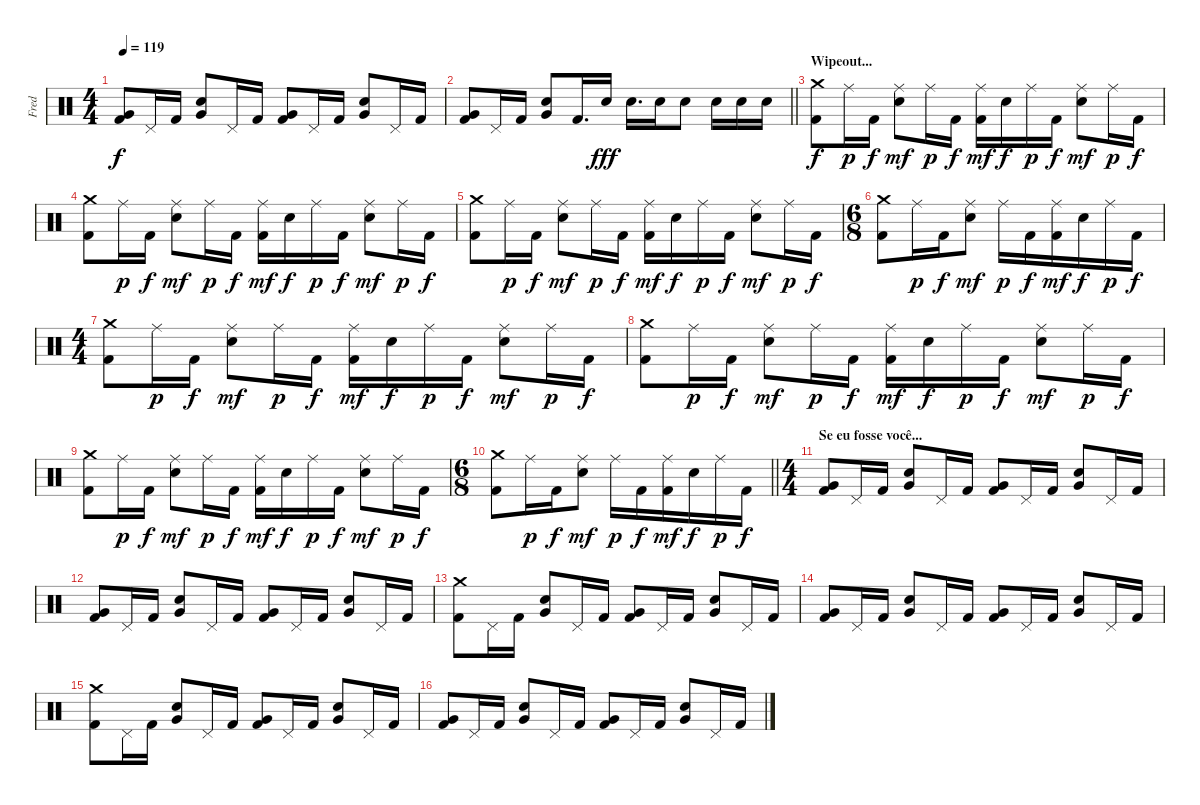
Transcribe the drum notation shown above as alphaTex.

\track ("Fred" "Fred") {instrument percussion}
\staff {score}
\articulation defaults
\ts (4 4)
\tempo 119
\clef neutral
\ks c
("Very Low Tom (hit)" "Kick (hit) 2").8{dy f} "Pedal Hi-Hat (hit)".16 "Kick (hit) 2".16 ("Very Low Tom (hit)" "Electric Snare (hit)").8 "Pedal Hi-Hat (hit)".16 "Kick (hit) 2".16 ("Very Low Tom (hit)" "Kick (hit) 2").8 "Pedal Hi-Hat (hit)".16 "Kick (hit) 2".16 ("Very Low Tom (hit)" "Electric Snare (hit)").8 "Pedal Hi-Hat (hit)".16 "Kick (hit) 2".16 |
\barLineRight lightlight
("Very Low Tom (hit)" "Kick (hit) 2").8 "Pedal Hi-Hat (hit)".16 "Kick (hit) 2".16 ("Very Low Tom (hit)" "Electric Snare (hit)").8 "Kick (hit) 2".16{d} "Electric Snare (hit)".16{dy fff} "Electric Snare (hit)".16{d} "Electric Snare (hit)".16 "Electric Snare (hit)".8 "Electric Snare (hit)".16 "Electric Snare (hit)".16 "Electric Snare (hit)".16 |
\section ("" "Wipeout...")
("Crash medium (hit)" "Kick (hit) 2").8{dy f} "Ride (middle)".16{dy p} "Kick (hit) 2".16{dy f} ("Ride (middle)" "Electric Snare (hit)").8{dy mf} "Ride (middle)".16{dy p} "Kick (hit) 2".16{dy f} ("Ride (middle)" "Kick (hit) 2").16{dy mf} "Electric Snare (hit)".16{dy f} "Ride (middle)".16{dy p} "Kick (hit) 2".16{dy f} ("Ride (middle)" "Electric Snare (hit)").8{dy mf} "Ride (middle)".16{dy p} "Kick (hit) 2".16{dy f} |
("Crash medium (hit)" "Kick (hit) 2").8 "Ride (middle)".16{dy p} "Kick (hit) 2".16{dy f} ("Ride (middle)" "Electric Snare (hit)").8{dy mf} "Ride (middle)".16{dy p} "Kick (hit) 2".16{dy f} ("Ride (middle)" "Kick (hit) 2").16{dy mf} "Electric Snare (hit)".16{dy f} "Ride (middle)".16{dy p} "Kick (hit) 2".16{dy f} ("Ride (middle)" "Electric Snare (hit)").8{dy mf} "Ride (middle)".16{dy p} "Kick (hit) 2".16{dy f} |
("Crash medium (hit)" "Kick (hit) 2").8 "Ride (middle)".16{dy p} "Kick (hit) 2".16{dy f} ("Ride (middle)" "Electric Snare (hit)").8{dy mf} "Ride (middle)".16{dy p} "Kick (hit) 2".16{dy f} ("Ride (middle)" "Kick (hit) 2").16{dy mf} "Electric Snare (hit)".16{dy f} "Ride (middle)".16{dy p} "Kick (hit) 2".16{dy f} ("Ride (middle)" "Electric Snare (hit)").8{dy mf} "Ride (middle)".16{dy p} "Kick (hit) 2".16{dy f} |
\ts (6 8)
("Crash medium (hit)" "Kick (hit) 2").8 "Ride (middle)".16{dy p} "Kick (hit) 2".16{dy f} ("Ride (middle)" "Electric Snare (hit)").8{dy mf} "Ride (middle)".16{dy p} "Kick (hit) 2".16{dy f} ("Ride (middle)" "Kick (hit) 2").16{dy mf} "Electric Snare (hit)".16{dy f} "Ride (middle)".16{dy p} "Kick (hit) 2".16{dy f} |
\ts (4 4)
("Crash medium (hit)" "Kick (hit) 2").8 "Ride (middle)".16{dy p} "Kick (hit) 2".16{dy f} ("Ride (middle)" "Electric Snare (hit)").8{dy mf} "Ride (middle)".16{dy p} "Kick (hit) 2".16{dy f} ("Ride (middle)" "Kick (hit) 2").16{dy mf} "Electric Snare (hit)".16{dy f} "Ride (middle)".16{dy p} "Kick (hit) 2".16{dy f} ("Ride (middle)" "Electric Snare (hit)").8{dy mf} "Ride (middle)".16{dy p} "Kick (hit) 2".16{dy f} |
("Crash medium (hit)" "Kick (hit) 2").8 "Ride (middle)".16{dy p} "Kick (hit) 2".16{dy f} ("Ride (middle)" "Electric Snare (hit)").8{dy mf} "Ride (middle)".16{dy p} "Kick (hit) 2".16{dy f} ("Ride (middle)" "Kick (hit) 2").16{dy mf} "Electric Snare (hit)".16{dy f} "Ride (middle)".16{dy p} "Kick (hit) 2".16{dy f} ("Ride (middle)" "Electric Snare (hit)").8{dy mf} "Ride (middle)".16{dy p} "Kick (hit) 2".16{dy f} |
("Crash medium (hit)" "Kick (hit) 2").8 "Ride (middle)".16{dy p} "Kick (hit) 2".16{dy f} ("Ride (middle)" "Electric Snare (hit)").8{dy mf} "Ride (middle)".16{dy p} "Kick (hit) 2".16{dy f} ("Ride (middle)" "Kick (hit) 2").16{dy mf} "Electric Snare (hit)".16{dy f} "Ride (middle)".16{dy p} "Kick (hit) 2".16{dy f} ("Ride (middle)" "Electric Snare (hit)").8{dy mf} "Ride (middle)".16{dy p} "Kick (hit) 2".16{dy f} |
\ts (6 8)
\barLineRight lightlight
("Crash medium (hit)" "Kick (hit) 2").8 "Ride (middle)".16{dy p} "Kick (hit) 2".16{dy f} ("Ride (middle)" "Electric Snare (hit)").8{dy mf} "Ride (middle)".16{dy p} "Kick (hit) 2".16{dy f} ("Ride (middle)" "Kick (hit) 2").16{dy mf} "Electric Snare (hit)".16{dy f} "Ride (middle)".16{dy p} "Kick (hit) 2".16{dy f} |
\ts (4 4)
\section ("" "Se eu fosse você...")
("Very Low Tom (hit)" "Kick (hit) 2").8 "Pedal Hi-Hat (hit)".16 "Kick (hit) 2".16 ("Very Low Tom (hit)" "Electric Snare (hit)").8 "Pedal Hi-Hat (hit)".16 "Kick (hit) 2".16 ("Very Low Tom (hit)" "Kick (hit) 2").8 "Pedal Hi-Hat (hit)".16 "Kick (hit) 2".16 ("Very Low Tom (hit)" "Electric Snare (hit)").8 "Pedal Hi-Hat (hit)".16 "Kick (hit) 2".16 |
("Very Low Tom (hit)" "Kick (hit) 2").8 "Pedal Hi-Hat (hit)".16 "Kick (hit) 2".16 ("Very Low Tom (hit)" "Electric Snare (hit)").8 "Pedal Hi-Hat (hit)".16 "Kick (hit) 2".16 ("Very Low Tom (hit)" "Kick (hit) 2").8 "Pedal Hi-Hat (hit)".16 "Kick (hit) 2".16 ("Very Low Tom (hit)" "Electric Snare (hit)").8 "Pedal Hi-Hat (hit)".16 "Kick (hit) 2".16 |
("Crash medium (hit)" "Kick (hit) 2").8 "Pedal Hi-Hat (hit)".16 "Kick (hit) 2".16 ("Very Low Tom (hit)" "Electric Snare (hit)").8 "Pedal Hi-Hat (hit)".16 "Kick (hit) 2".16 ("Very Low Tom (hit)" "Kick (hit) 2").8 "Pedal Hi-Hat (hit)".16 "Kick (hit) 2".16 ("Very Low Tom (hit)" "Electric Snare (hit)").8 "Pedal Hi-Hat (hit)".16 "Kick (hit) 2".16 |
("Very Low Tom (hit)" "Kick (hit) 2").8 "Pedal Hi-Hat (hit)".16 "Kick (hit) 2".16 ("Very Low Tom (hit)" "Electric Snare (hit)").8 "Pedal Hi-Hat (hit)".16 "Kick (hit) 2".16 ("Very Low Tom (hit)" "Kick (hit) 2").8 "Pedal Hi-Hat (hit)".16 "Kick (hit) 2".16 ("Very Low Tom (hit)" "Electric Snare (hit)").8 "Pedal Hi-Hat (hit)".16 "Kick (hit) 2".16 |
("Crash medium (hit)" "Kick (hit) 2").8 "Pedal Hi-Hat (hit)".16 "Kick (hit) 2".16 ("Very Low Tom (hit)" "Electric Snare (hit)").8 "Pedal Hi-Hat (hit)".16 "Kick (hit) 2".16 ("Very Low Tom (hit)" "Kick (hit) 2").8 "Pedal Hi-Hat (hit)".16 "Kick (hit) 2".16 ("Very Low Tom (hit)" "Electric Snare (hit)").8 "Pedal Hi-Hat (hit)".16 "Kick (hit) 2".16 |
("Very Low Tom (hit)" "Kick (hit) 2").8 "Pedal Hi-Hat (hit)".16 "Kick (hit) 2".16 ("Very Low Tom (hit)" "Electric Snare (hit)").8 "Pedal Hi-Hat (hit)".16 "Kick (hit) 2".16 ("Very Low Tom (hit)" "Kick (hit) 2").8 "Pedal Hi-Hat (hit)".16 "Kick (hit) 2".16 ("Very Low Tom (hit)" "Electric Snare (hit)").8 "Pedal Hi-Hat (hit)".16 "Kick (hit) 2".16
